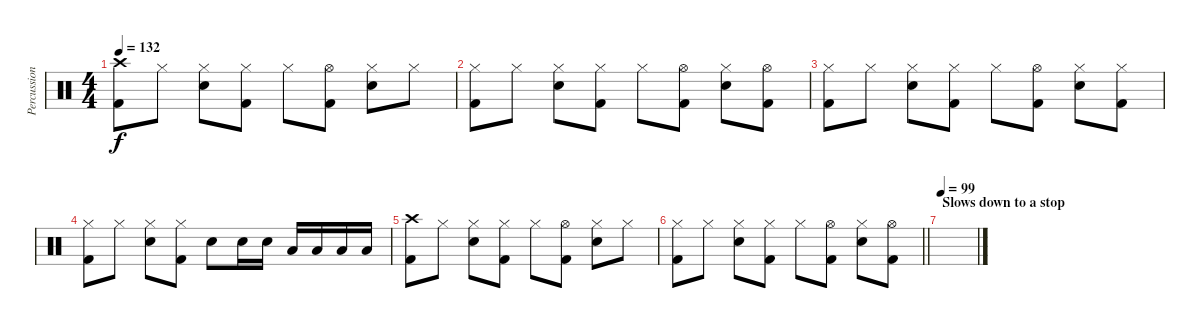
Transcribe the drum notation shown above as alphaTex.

\track ("Percussioni" "Percussion") {instrument percussion}
\staff {score}
\articulation defaults
\ts (4 4)
\tempo 132
\clef neutral
\ks c
("Crash high (hit)" "Kick (hit) 2").8{dy f} "Hi-Hat (closed)".8 ("Hi-Hat (closed)" "Snare (hit) 2").8 ("Hi-Hat (closed)" "Kick (hit) 2").8 "Hi-Hat (closed)".8 ("Hi-Hat (open)" "Kick (hit) 2").8 ("Hi-Hat (closed)" "Snare (hit) 2").8 "Hi-Hat (closed)".8 |
("Hi-Hat (closed)" "Kick (hit) 2").8 "Hi-Hat (closed)".8 ("Hi-Hat (closed)" "Snare (hit) 2").8 ("Hi-Hat (closed)" "Kick (hit) 2").8 "Hi-Hat (closed)".8 ("Hi-Hat (open)" "Kick (hit) 2").8 ("Hi-Hat (closed)" "Snare (hit) 2").8 ("Hi-Hat (open)" "Kick (hit) 2").8 |
("Hi-Hat (closed)" "Kick (hit) 2").8 "Hi-Hat (closed)".8 ("Hi-Hat (closed)" "Snare (hit) 2").8 ("Hi-Hat (closed)" "Kick (hit) 2").8 "Hi-Hat (closed)".8 ("Hi-Hat (open)" "Kick (hit) 2").8 ("Hi-Hat (closed)" "Snare (hit) 2").8 ("Hi-Hat (closed)" "Kick (hit) 2").8 |
("Hi-Hat (closed)" "Kick (hit) 2").8 "Hi-Hat (closed)".8 ("Hi-Hat (closed)" "Snare (hit) 2").8 ("Hi-Hat (closed)" "Kick (hit) 2").8 "Snare (hit) 2".8 "Snare (hit) 2".16 "Snare (hit) 2".16 "Low Floor Tom (hit)".16 "Low Floor Tom (hit)".16 "Low Floor Tom (hit)".16 "Low Floor Tom (hit)".16 |
("Crash high (hit)" "Kick (hit) 2").8 "Hi-Hat (closed)".8 ("Hi-Hat (closed)" "Snare (hit) 2").8 ("Hi-Hat (closed)" "Kick (hit) 2").8 "Hi-Hat (closed)".8 ("Hi-Hat (open)" "Kick (hit) 2").8 ("Hi-Hat (closed)" "Snare (hit) 2").8 "Hi-Hat (closed)".8 |
\barLineRight lightlight
("Hi-Hat (closed)" "Kick (hit) 2").8 "Hi-Hat (closed)".8 ("Hi-Hat (closed)" "Snare (hit) 2").8 ("Hi-Hat (closed)" "Kick (hit) 2").8 "Hi-Hat (closed)".8 ("Hi-Hat (open)" "Kick (hit) 2").8 ("Hi-Hat (closed)" "Snare (hit) 2").8 ("Hi-Hat (open)" "Kick (hit) 2").8 |
\section ("" "Slows down to a stop")
\tempo 99
